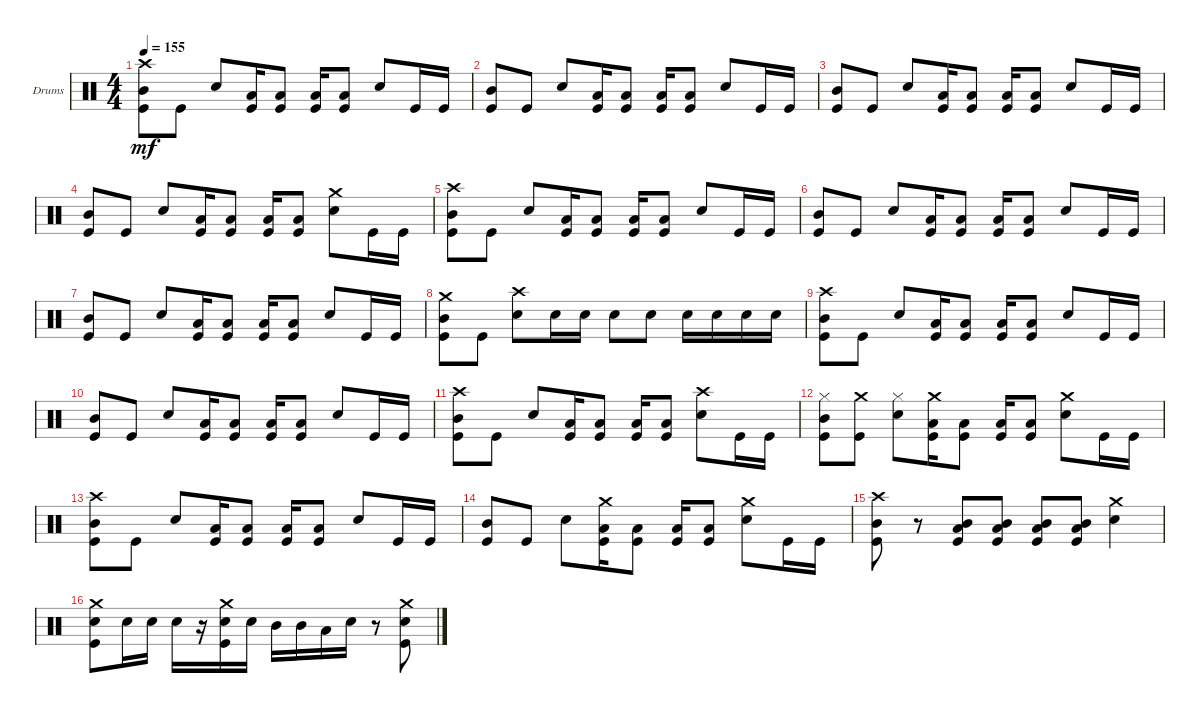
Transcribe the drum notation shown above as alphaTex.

\defaultSystemsLayout 4
\bracketExtendMode groupsimilarinstruments
\firstSystemTrackNameOrientation horizontal
\otherSystemsTrackNameOrientation horizontal
\track ("Drumkit" "Drums") {instrument percussion}
\staff {score}
\articulation defaults
\ts (4 4)
\tempo 155
\clef neutral
\ks c
("Kick (hit)" "Mid Tom (hit)" "Crash high (hit)").8{dy mf} "Kick (hit)".8 "Snare (hit) 2".8 ("Kick (hit)" "Low Tom (hit)").16 ("Kick (hit)" "Low Tom (hit)").8 ("Kick (hit)" "Low Tom (hit)").16 ("Kick (hit)" "Low Tom (hit)").8 "Snare (hit) 2".8 "Kick (hit)".16 "Kick (hit)".16 |
("Kick (hit)" "Mid Tom (hit)").8 "Kick (hit)".8 "Snare (hit) 2".8 ("Kick (hit)" "Low Tom (hit)").16 ("Kick (hit)" "Low Tom (hit)").8 ("Kick (hit)" "Low Tom (hit)").16 ("Kick (hit)" "Low Tom (hit)").8 "Snare (hit) 2".8 "Kick (hit)".16 "Kick (hit)".16 |
("Kick (hit)" "Mid Tom (hit)").8 "Kick (hit)".8 "Snare (hit) 2".8 ("Kick (hit)" "Low Tom (hit)").16 ("Kick (hit)" "Low Tom (hit)").8 ("Kick (hit)" "Low Tom (hit)").16 ("Kick (hit)" "Low Tom (hit)").8 "Snare (hit) 2".8 "Kick (hit)".16 "Kick (hit)".16 |
("Kick (hit)" "Mid Tom (hit)").8 "Kick (hit)".8 "Snare (hit) 2".8 ("Kick (hit)" "Low Tom (hit)").16 ("Kick (hit)" "Low Tom (hit)").8 ("Kick (hit)" "Low Tom (hit)").16 ("Kick (hit)" "Low Tom (hit)").8 ("Snare (hit) 2" "Crash medium (hit)").8 "Kick (hit)".16 "Kick (hit)".16 |
("Kick (hit)" "Mid Tom (hit)" "Crash high (hit)").8 "Kick (hit)".8 "Snare (hit) 2".8 ("Kick (hit)" "Low Tom (hit)").16 ("Kick (hit)" "Low Tom (hit)").8 ("Kick (hit)" "Low Tom (hit)").16 ("Kick (hit)" "Low Tom (hit)").8 "Snare (hit) 2".8 "Kick (hit)".16 "Kick (hit)".16 |
("Kick (hit)" "Mid Tom (hit)").8 "Kick (hit)".8 "Snare (hit) 2".8 ("Kick (hit)" "Low Tom (hit)").16 ("Kick (hit)" "Low Tom (hit)").8 ("Kick (hit)" "Low Tom (hit)").16 ("Kick (hit)" "Low Tom (hit)").8 "Snare (hit) 2".8 "Kick (hit)".16 "Kick (hit)".16 |
("Kick (hit)" "Mid Tom (hit)").8 "Kick (hit)".8 "Snare (hit) 2".8 ("Kick (hit)" "Low Tom (hit)").16 ("Kick (hit)" "Low Tom (hit)").8 ("Kick (hit)" "Low Tom (hit)").16 ("Kick (hit)" "Low Tom (hit)").8 "Snare (hit) 2".8 "Kick (hit)".16 "Kick (hit)".16 |
("Kick (hit)" "Mid Tom (hit)" "Crash medium (hit)").8 "Kick (hit)".8 ("Snare (hit) 2" "Crash high (hit)").8 "Snare (hit) 2".16 "Snare (hit) 2".16 "Snare (hit) 2".8 "Snare (hit) 2".8 "Snare (hit) 2".16 "Snare (hit) 2".16 "Snare (hit) 2".16 "Snare (hit) 2".16 |
("Kick (hit)" "Mid Tom (hit)" "Crash high (hit)").8 "Kick (hit)".8 "Snare (hit) 2".8 ("Kick (hit)" "Low Tom (hit)").16 ("Kick (hit)" "Low Tom (hit)").8 ("Kick (hit)" "Low Tom (hit)").16 ("Kick (hit)" "Low Tom (hit)").8 "Snare (hit) 2".8 "Kick (hit)".16 "Kick (hit)".16 |
("Kick (hit)" "Mid Tom (hit)").8 "Kick (hit)".8 "Snare (hit) 2".8 ("Kick (hit)" "Low Tom (hit)").16 ("Kick (hit)" "Low Tom (hit)").8 ("Kick (hit)" "Low Tom (hit)").16 ("Kick (hit)" "Low Tom (hit)").8 "Snare (hit) 2".8 "Kick (hit)".16 "Kick (hit)".16 |
("Kick (hit)" "Mid Tom (hit)" "Crash high (hit)").8 "Kick (hit)".8 "Snare (hit) 2".8 ("Kick (hit)" "Low Tom (hit)").16 ("Kick (hit)" "Low Tom (hit)").8 ("Kick (hit)" "Low Tom (hit)").16 ("Kick (hit)" "Low Tom (hit)").8 ("Snare (hit) 2" "Crash high (hit)").8 "Kick (hit)".16 "Kick (hit)".16 |
("Kick (hit)" "Mid Tom (hit)" "Hi-Hat (closed)").8 ("Kick (hit)" "Crash medium (hit)").8 ("Snare (hit) 2" "Hi-Hat (closed)").8 ("Kick (hit)" "Low Tom (hit)" "Crash medium (hit)").16 ("Kick (hit)" "Low Tom (hit)").8 ("Kick (hit)" "Low Tom (hit)").16 ("Kick (hit)" "Low Tom (hit)").8 ("Snare (hit) 2" "Crash medium (hit)").8 "Kick (hit)".16 "Kick (hit)".16 |
("Kick (hit)" "Mid Tom (hit)" "Crash high (hit)").8 "Kick (hit)".8 "Snare (hit) 2".8 ("Kick (hit)" "Low Tom (hit)").16 ("Kick (hit)" "Low Tom (hit)").8 ("Kick (hit)" "Low Tom (hit)").16 ("Kick (hit)" "Low Tom (hit)").8 "Snare (hit) 2".8 "Kick (hit)".16 "Kick (hit)".16 |
("Kick (hit)" "Mid Tom (hit)").8 "Kick (hit)".8 "Snare (hit) 2".8 ("Kick (hit)" "Low Tom (hit)" "Crash medium (hit)").16 ("Kick (hit)" "Low Tom (hit)").8 ("Kick (hit)" "Low Tom (hit)").16 ("Kick (hit)" "Low Tom (hit)").8 ("Snare (hit) 2" "Crash medium (hit)").8 "Kick (hit)".16 "Kick (hit)".16 |
("Kick (hit)" "Mid Tom (hit)" "Crash high (hit)").8 r.8 ("Kick (hit)" "Mid Tom (hit)" "Low Tom (hit)").8 ("Kick (hit)" "Mid Tom (hit)" "Low Tom (hit)").8 ("Kick (hit)" "Mid Tom (hit)" "Low Tom (hit)").8 ("Kick (hit)" "Mid Tom (hit)" "Low Tom (hit)").8 ("Snare (hit) 2" "Crash medium (hit)").4 |
("Kick (hit)" "Snare (hit) 2" "Crash medium (hit)").8 "Snare (hit) 2".16 "Snare (hit) 2".16 "Snare (hit) 2".16 r.16 ("Kick (hit)" "Snare (hit) 2" "Crash medium (hit)").16 "Snare (hit) 2".16 "Mid Tom (hit)".16 "Mid Tom (hit)".16 "Low Tom (hit)".16 "Snare (hit) 2".16 r.8 ("Kick (hit)" "Snare (hit) 2" "Crash medium (hit)").8
